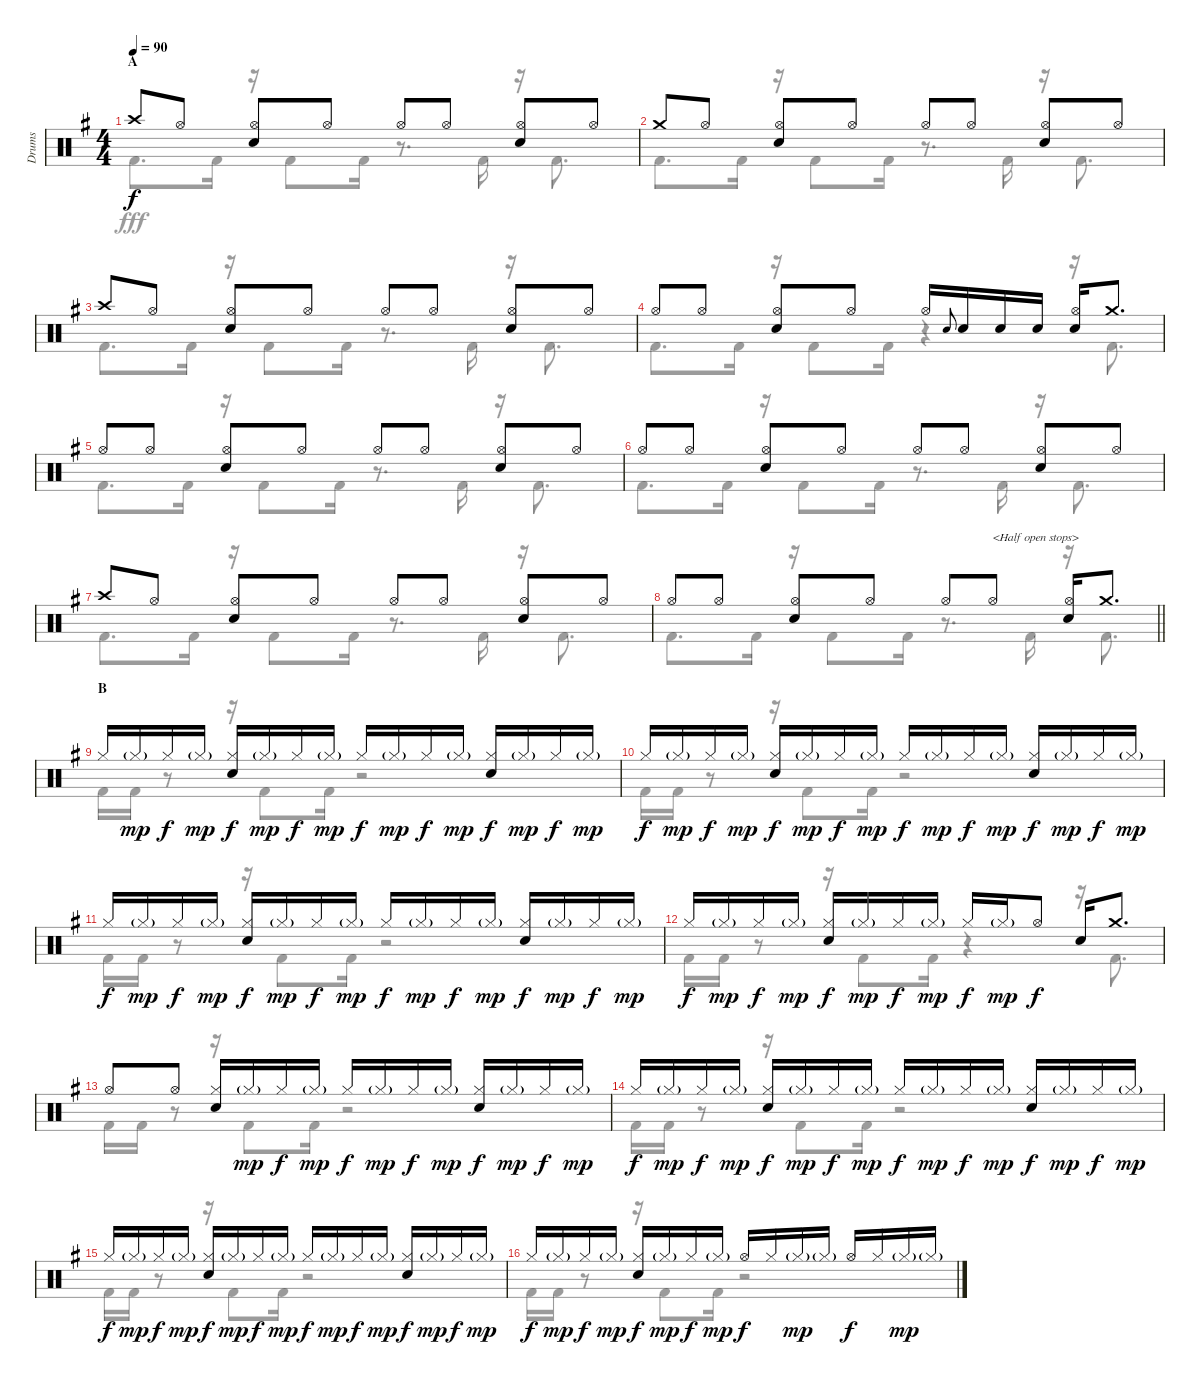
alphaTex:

\track ("Drums" "Drums") {instrument percussion}
\staff {score}
\articulation defaults
\voice
\ts (4 4)
\section ("" "A")
\tempo 90
\clef neutral
\ks g "Crash high (hit)".8{dy f} "Hi-Hat (open)".8
("Hi-Hat (open)" "Snare (hit) 2").8 "Hi-Hat (open)".8 "Hi-Hat (open)".8 "Hi-Hat (open)".8 ("Hi-Hat (open)" "Snare (hit) 2").8 "Hi-Hat (open)".8 |
"Crash medium (hit)".8 "Hi-Hat (open)".8 ("Hi-Hat (open)" "Snare (hit) 2").8 "Hi-Hat (open)".8 "Hi-Hat (open)".8 "Hi-Hat (open)".8 ("Hi-Hat (open)" "Snare (hit) 2").8 "Hi-Hat (open)".8 |
"Crash high (hit)".8 "Hi-Hat (open)".8 ("Hi-Hat (open)" "Snare (hit) 2").8 "Hi-Hat (open)".8 "Hi-Hat (open)".8 "Hi-Hat (open)".8 ("Hi-Hat (open)" "Snare (hit) 2").8 "Hi-Hat (open)".8 |
"Hi-Hat (open)".8 "Hi-Hat (open)".8 ("Hi-Hat (open)" "Snare (hit) 2").8 "Hi-Hat (open)".8 "Hi-Hat (open)".16 "Snare (hit) 2".8{gr onbeat} "Snare (hit) 2".16 "Snare (hit) 2".16 "Snare (hit) 2".16 ("Hi-Hat (open)" "Snare (hit) 2").16 "Crash medium (hit)".8{d} |
"Hi-Hat (open)".8 "Hi-Hat (open)".8 ("Hi-Hat (open)" "Snare (hit) 2").8 "Hi-Hat (open)".8 "Hi-Hat (open)".8 "Hi-Hat (open)".8 ("Hi-Hat (open)" "Snare (hit) 2").8 "Hi-Hat (open)".8 |
"Hi-Hat (open)".8 "Hi-Hat (open)".8 ("Hi-Hat (open)" "Snare (hit) 2").8 "Hi-Hat (open)".8 "Hi-Hat (open)".8 "Hi-Hat (open)".8 ("Hi-Hat (open)" "Snare (hit) 2").8 "Hi-Hat (open)".8 |
"Crash high (hit)".8 "Hi-Hat (open)".8 ("Hi-Hat (open)" "Snare (hit) 2").8 "Hi-Hat (open)".8 "Hi-Hat (open)".8 "Hi-Hat (open)".8 ("Hi-Hat (open)" "Snare (hit) 2").8 "Hi-Hat (open)".8 |
\barLineRight lightlight "Hi-Hat (open)".8 "Hi-Hat (open)".8
("Hi-Hat (open)" "Snare (hit) 2").8 "Hi-Hat (open)".8 "Hi-Hat (open)".8 "Hi-Hat (open)".8{txt "<Half open stops>"} ("Hi-Hat (open)" "Snare (hit) 2").16 "Crash medium (hit)".8{d} |
\section ("" "B")
"Hi-Hat (closed)".16 "Hi-Hat (closed)"{g}.16{dy mp} "Hi-Hat (closed)".16{dy f} "Hi-Hat (closed)"{g}.16{dy mp} ("Hi-Hat (closed)" "Snare (hit) 2").16{dy f} "Hi-Hat (closed)"{g}.16{dy mp} "Hi-Hat (closed)".16{dy f} "Hi-Hat (closed)"{g}.16{dy mp} "Hi-Hat (closed)".16{dy f} "Hi-Hat (closed)"{g}.16{dy mp} "Hi-Hat (closed)".16{dy f} "Hi-Hat (closed)"{g}.16{dy mp} ("Hi-Hat (closed)" "Snare (hit) 2").16{dy f} "Hi-Hat (closed)"{g}.16{dy mp} "Hi-Hat (closed)".16{dy f} "Hi-Hat (closed)"{g}.16{dy mp} |
"Hi-Hat (closed)".16{dy f} "Hi-Hat (closed)"{g}.16{dy mp} "Hi-Hat (closed)".16{dy f} "Hi-Hat (closed)"{g}.16{dy mp} ("Hi-Hat (closed)" "Snare (hit) 2").16{dy f} "Hi-Hat (closed)"{g}.16{dy mp} "Hi-Hat (closed)".16{dy f} "Hi-Hat (closed)"{g}.16{dy mp} "Hi-Hat (closed)".16{dy f} "Hi-Hat (closed)"{g}.16{dy mp} "Hi-Hat (closed)".16{dy f} "Hi-Hat (closed)"{g}.16{dy mp} ("Hi-Hat (closed)" "Snare (hit) 2").16{dy f} "Hi-Hat (closed)"{g}.16{dy mp} "Hi-Hat (closed)".16{dy f} "Hi-Hat (closed)"{g}.16{dy mp} |
"Hi-Hat (closed)".16{dy f} "Hi-Hat (closed)"{g}.16{dy mp} "Hi-Hat (closed)".16{dy f} "Hi-Hat (closed)"{g}.16{dy mp} ("Hi-Hat (closed)" "Snare (hit) 2").16{dy f} "Hi-Hat (closed)"{g}.16{dy mp} "Hi-Hat (closed)".16{dy f} "Hi-Hat (closed)"{g}.16{dy mp} "Hi-Hat (closed)".16{dy f} "Hi-Hat (closed)"{g}.16{dy mp} "Hi-Hat (closed)".16{dy f} "Hi-Hat (closed)"{g}.16{dy mp} ("Hi-Hat (closed)" "Snare (hit) 2").16{dy f} "Hi-Hat (closed)"{g}.16{dy mp} "Hi-Hat (closed)".16{dy f} "Hi-Hat (closed)"{g}.16{dy mp} |
"Hi-Hat (closed)".16{dy f} "Hi-Hat (closed)"{g}.16{dy mp} "Hi-Hat (closed)".16{dy f} "Hi-Hat (closed)"{g}.16{dy mp} ("Hi-Hat (closed)" "Snare (hit) 2").16{dy f} "Hi-Hat (closed)"{g}.16{dy mp} "Hi-Hat (closed)".16{dy f} "Hi-Hat (closed)"{g}.16{dy mp} "Hi-Hat (closed)".16{dy f} "Hi-Hat (closed)"{g}.16{dy mp} "Hi-Hat (open)".8{dy f} "Snare (hit) 2".16 "Crash medium (hit)".8{d} |
"Hi-Hat (open)".8 "Hi-Hat (open)".8 ("Hi-Hat (closed)" "Snare (hit) 2").16 "Hi-Hat (closed)"{g}.16{dy mp} "Hi-Hat (closed)".16{dy f} "Hi-Hat (closed)"{g}.16{dy mp} "Hi-Hat (closed)".16{dy f} "Hi-Hat (closed)"{g}.16{dy mp} "Hi-Hat (closed)".16{dy f} "Hi-Hat (closed)"{g}.16{dy mp} ("Hi-Hat (closed)" "Snare (hit) 2").16{dy f} "Hi-Hat (closed)"{g}.16{dy mp} "Hi-Hat (closed)".16{dy f} "Hi-Hat (closed)"{g}.16{dy mp} |
"Hi-Hat (closed)".16{dy f} "Hi-Hat (closed)"{g}.16{dy mp} "Hi-Hat (closed)".16{dy f} "Hi-Hat (closed)"{g}.16{dy mp} ("Hi-Hat (closed)" "Snare (hit) 2").16{dy f} "Hi-Hat (closed)"{g}.16{dy mp} "Hi-Hat (closed)".16{dy f} "Hi-Hat (closed)"{g}.16{dy mp} "Hi-Hat (closed)".16{dy f} "Hi-Hat (closed)"{g}.16{dy mp} "Hi-Hat (closed)".16{dy f} "Hi-Hat (closed)"{g}.16{dy mp} ("Hi-Hat (closed)" "Snare (hit) 2").16{dy f} "Hi-Hat (closed)"{g}.16{dy mp} "Hi-Hat (closed)".16{dy f} "Hi-Hat (closed)"{g}.16{dy mp} |
"Hi-Hat (closed)".16{dy f} "Hi-Hat (closed)"{g}.16{dy mp} "Hi-Hat (closed)".16{dy f} "Hi-Hat (closed)"{g}.16{dy mp} ("Hi-Hat (closed)" "Snare (hit) 2").16{dy f} "Hi-Hat (closed)"{g}.16{dy mp} "Hi-Hat (closed)".16{dy f} "Hi-Hat (closed)"{g}.16{dy mp} "Hi-Hat (closed)".16{dy f} "Hi-Hat (closed)"{g}.16{dy mp} "Hi-Hat (closed)".16{dy f} "Hi-Hat (closed)"{g}.16{dy mp} ("Hi-Hat (closed)" "Snare (hit) 2").16{dy f} "Hi-Hat (closed)"{g}.16{dy mp} "Hi-Hat (closed)".16{dy f} "Hi-Hat (closed)"{g}.16{dy mp} |
"Hi-Hat (closed)".16{dy f} "Hi-Hat (closed)"{g}.16{dy mp} "Hi-Hat (closed)".16{dy f} "Hi-Hat (closed)"{g}.16{dy mp} ("Hi-Hat (closed)" "Snare (hit) 2").16{dy f} "Hi-Hat (closed)"{g}.16{dy mp} "Hi-Hat (closed)".16{dy f} "Hi-Hat (closed)"{g}.16{dy mp} "Hi-Hat (open)".16{dy f} "Hi-Hat (closed)".16 "Hi-Hat (closed)"{g}.16{dy mp} "Hi-Hat (closed)"{g}.16 "Hi-Hat (open)".16{dy f} "Hi-Hat (closed)".16 "Hi-Hat (closed)"{g}.16{dy mp} "Hi-Hat (closed)"{g}.16
\voice
\clef neutral
\ottava regular
\simile none
\ks g "Kick (hit) 2".8{d dy fff} "Kick (hit) 2".16
r.16 "Kick (hit) 2".8 "Kick (hit) 2".16 r.8{d} "Kick (hit) 2".16 r.16 "Kick (hit) 2".8{d} |
"Kick (hit) 2".8{d} "Kick (hit) 2".16 r.16 "Kick (hit) 2".8 "Kick (hit) 2".16 r.8{d} "Kick (hit) 2".16 r.16 "Kick (hit) 2".8{d} |
"Kick (hit) 2".8{d} "Kick (hit) 2".16 r.16 "Kick (hit) 2".8 "Kick (hit) 2".16 r.8{d} "Kick (hit) 2".16 r.16 "Kick (hit) 2".8{d} |
"Kick (hit) 2".8{d} "Kick (hit) 2".16 r.16 "Kick (hit) 2".8 "Kick (hit) 2".16 r.4 r.16 "Kick (hit) 2".8{d} |
"Kick (hit) 2".8{d} "Kick (hit) 2".16 r.16 "Kick (hit) 2".8 "Kick (hit) 2".16 r.8{d} "Kick (hit) 2".16 r.16 "Kick (hit) 2".8{d} |
"Kick (hit) 2".8{d} "Kick (hit) 2".16 r.16 "Kick (hit) 2".8 "Kick (hit) 2".16 r.8{d} "Kick (hit) 2".16 r.16 "Kick (hit) 2".8{d} |
"Kick (hit) 2".8{d} "Kick (hit) 2".16 r.16 "Kick (hit) 2".8 "Kick (hit) 2".16 r.8{d} "Kick (hit) 2".16 r.16 "Kick (hit) 2".8{d} |
\barLineRight lightlight "Kick (hit) 2".8{d} "Kick (hit) 2".16
r.16 "Kick (hit) 2".8 "Kick (hit) 2".16 r.8{d} "Kick (hit) 2".16 r.16 "Kick (hit) 2".8{d} |
"Kick (hit) 2".16 "Kick (hit) 2".16 r.8 r.16 "Kick (hit) 2".8 "Kick (hit) 2".16 r.2 |
"Kick (hit) 2".16 "Kick (hit) 2".16 r.8 r.16 "Kick (hit) 2".8 "Kick (hit) 2".16 r.2 |
"Kick (hit) 2".16 "Kick (hit) 2".16 r.8 r.16 "Kick (hit) 2".8 "Kick (hit) 2".16 r.2 |
"Kick (hit) 2".16 "Kick (hit) 2".16 r.8 r.16 "Kick (hit) 2".8 "Kick (hit) 2".16 r.4 r.16 "Kick (hit) 2".8{d} |
"Kick (hit) 2".16 "Kick (hit) 2".16 r.8 r.16 "Kick (hit) 2".8 "Kick (hit) 2".16 r.2 |
"Kick (hit) 2".16 "Kick (hit) 2".16 r.8 r.16 "Kick (hit) 2".8 "Kick (hit) 2".16 r.2 |
"Kick (hit) 2".16 "Kick (hit) 2".16 r.8 r.16 "Kick (hit) 2".8 "Kick (hit) 2".16 r.2 |
"Kick (hit) 2".16 "Kick (hit) 2".16 r.8 r.16 "Kick (hit) 2".8 "Kick (hit) 2".16 r.2
